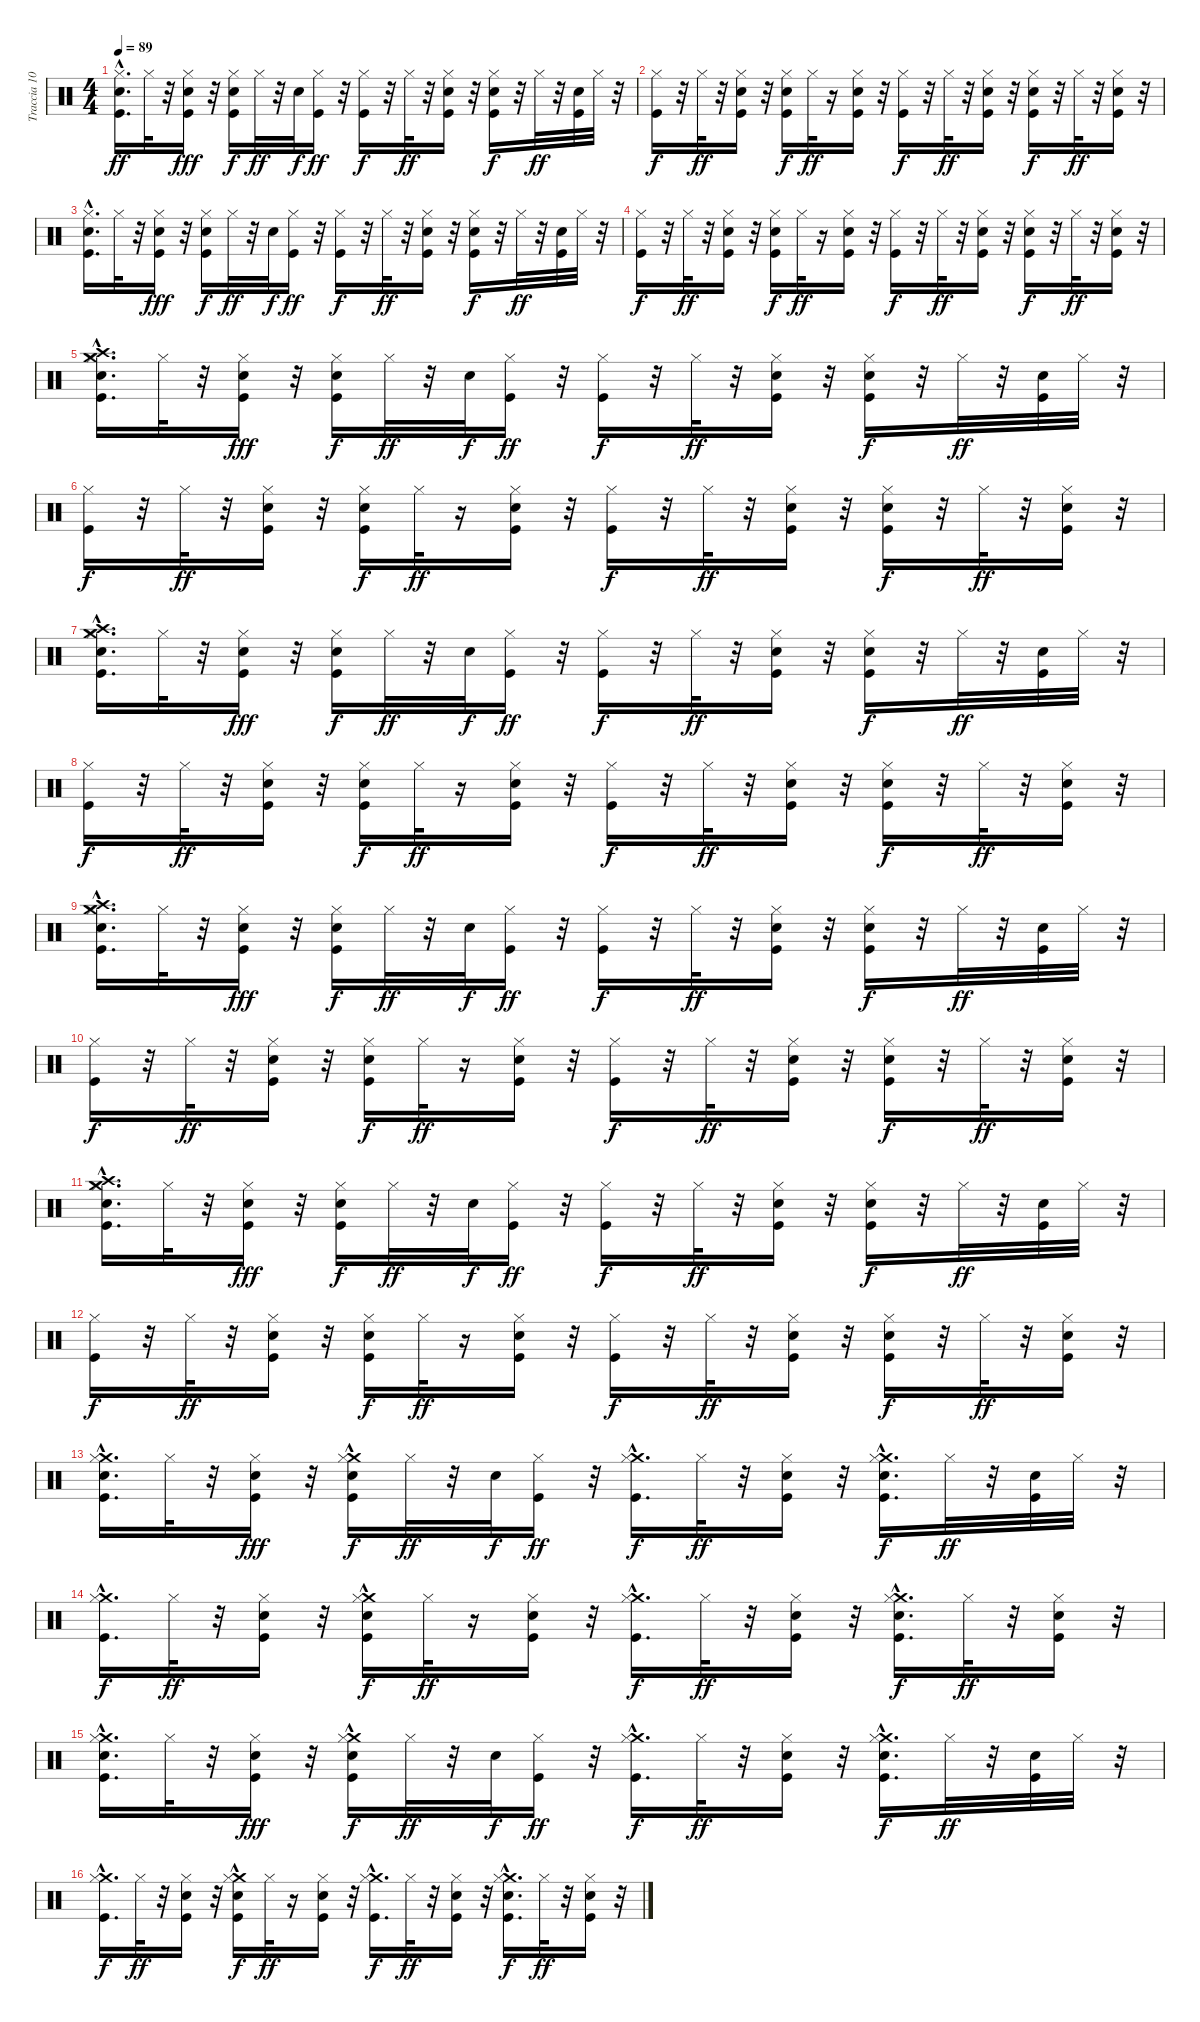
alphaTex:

\track ("Traccia 10" "Traccia 10") {instrument percussion}
\staff {score}
\articulation defaults
\ts (4 4)
\tempo 89
\clef neutral
\ks c
("Kick (hit)" "Hi-Hat (closed)" "Snare (hit)"{hac}).16{d dy ff} "Hi-Hat (closed)".32 r.32 ("Kick (hit)" "Hi-Hat (closed)" "Snare (hit)").16{dy fff} r.32 ("Kick (hit)" "Electric Snare (hit)" "Hi-Hat (closed)").16{dy f} "Hi-Hat (closed)".32{dy ff} r.32 "Snare (hit)".32{dy f} ("Kick (hit)" "Hi-Hat (closed)").16{dy ff} r.32 ("Kick (hit)" "Hi-Hat (closed)").16{dy f} r.32 "Hi-Hat (closed)".32{dy ff} r.32 ("Kick (hit)" "Snare (hit)" "Hi-Hat (closed)").16 r.32 ("Kick (hit)" "Electric Snare (hit)" "Hi-Hat (closed)").16{dy f} r.32 "Hi-Hat (closed)".32{dy ff} r.32 ("Kick (hit)" "Snare (hit)").32 "Hi-Hat (closed)".32 r.32 |
("Kick (hit)" "Hi-Hat (closed)").16{dy f} r.32 "Hi-Hat (closed)".32{dy ff} r.32 ("Kick (hit)" "Snare (hit)" "Hi-Hat (closed)").16 r.32 ("Kick (hit)" "Electric Snare (hit)" "Hi-Hat (closed)").16{dy f} "Hi-Hat (closed)".32{dy ff} r.16 ("Kick (hit)" "Hi-Hat (closed)" "Snare (hit)").16 r.32 ("Kick (hit)" "Hi-Hat (closed)").16{dy f} r.32 "Hi-Hat (closed)".32{dy ff} r.32 ("Snare (hit)" "Kick (hit)" "Hi-Hat (closed)").16 r.32 ("Kick (hit)" "Electric Snare (hit)" "Hi-Hat (closed)").16{dy f} r.32 "Hi-Hat (closed)".32{dy ff} r.32 ("Kick (hit)" "Snare (hit)" "Hi-Hat (closed)").16 r.32 |
("Kick (hit)" "Hi-Hat (closed)" "Snare (hit)"{hac}).16{d} "Hi-Hat (closed)".32 r.32 ("Kick (hit)" "Hi-Hat (closed)" "Snare (hit)").16{dy fff} r.32 ("Kick (hit)" "Electric Snare (hit)" "Hi-Hat (closed)").16{dy f} "Hi-Hat (closed)".32{dy ff} r.32 "Snare (hit)".32{dy f} ("Kick (hit)" "Hi-Hat (closed)").16{dy ff} r.32 ("Kick (hit)" "Hi-Hat (closed)").16{dy f} r.32 "Hi-Hat (closed)".32{dy ff} r.32 ("Kick (hit)" "Snare (hit)" "Hi-Hat (closed)").16 r.32 ("Kick (hit)" "Electric Snare (hit)" "Hi-Hat (closed)").16{dy f} r.32 "Hi-Hat (closed)".32{dy ff} r.32 ("Kick (hit)" "Snare (hit)").32 "Hi-Hat (closed)".32 r.32 |
("Kick (hit)" "Hi-Hat (closed)").16{dy f} r.32 "Hi-Hat (closed)".32{dy ff} r.32 ("Kick (hit)" "Snare (hit)" "Hi-Hat (closed)").16 r.32 ("Kick (hit)" "Electric Snare (hit)" "Hi-Hat (closed)").16{dy f} "Hi-Hat (closed)".32{dy ff} r.16 ("Kick (hit)" "Hi-Hat (closed)" "Snare (hit)").16 r.32 ("Kick (hit)" "Hi-Hat (closed)").16{dy f} r.32 "Hi-Hat (closed)".32{dy ff} r.32 ("Snare (hit)" "Kick (hit)" "Hi-Hat (closed)").16 r.32 ("Kick (hit)" "Electric Snare (hit)" "Hi-Hat (closed)").16{dy f} r.32 "Hi-Hat (closed)".32{dy ff} r.32 ("Kick (hit)" "Snare (hit)" "Hi-Hat (closed)").16 r.32 |
("Kick (hit)" "Crash high (hit)"{hac} "Crash medium (hit)"{hac} "Hi-Hat (closed)" "Snare (hit)"{hac}).16{d} "Hi-Hat (closed)".32 r.32 ("Kick (hit)" "Hi-Hat (closed)" "Snare (hit)").16{dy fff} r.32 ("Kick (hit)" "Electric Snare (hit)" "Hi-Hat (closed)").16{dy f} "Hi-Hat (closed)".32{dy ff} r.32 "Snare (hit)".32{dy f} ("Kick (hit)" "Hi-Hat (closed)").16{dy ff} r.32 ("Kick (hit)" "Hi-Hat (closed)").16{dy f} r.32 "Hi-Hat (closed)".32{dy ff} r.32 ("Kick (hit)" "Snare (hit)" "Hi-Hat (closed)").16 r.32 ("Kick (hit)" "Electric Snare (hit)" "Hi-Hat (closed)").16{dy f} r.32 "Hi-Hat (closed)".32{dy ff} r.32 ("Kick (hit)" "Snare (hit)").32 "Hi-Hat (closed)".32 r.32 |
("Kick (hit)" "Hi-Hat (closed)").16{dy f} r.32 "Hi-Hat (closed)".32{dy ff} r.32 ("Kick (hit)" "Snare (hit)" "Hi-Hat (closed)").16 r.32 ("Kick (hit)" "Electric Snare (hit)" "Hi-Hat (closed)").16{dy f} "Hi-Hat (closed)".32{dy ff} r.16 ("Kick (hit)" "Hi-Hat (closed)" "Snare (hit)").16 r.32 ("Kick (hit)" "Hi-Hat (closed)").16{dy f} r.32 "Hi-Hat (closed)".32{dy ff} r.32 ("Snare (hit)" "Kick (hit)" "Hi-Hat (closed)").16 r.32 ("Kick (hit)" "Electric Snare (hit)" "Hi-Hat (closed)").16{dy f} r.32 "Hi-Hat (closed)".32{dy ff} r.32 ("Kick (hit)" "Snare (hit)" "Hi-Hat (closed)").16 r.32 |
("Kick (hit)" "Crash high (hit)"{hac} "Crash medium (hit)"{hac} "Hi-Hat (closed)" "Snare (hit)"{hac}).16{d} "Hi-Hat (closed)".32 r.32 ("Kick (hit)" "Hi-Hat (closed)" "Snare (hit)").16{dy fff} r.32 ("Kick (hit)" "Electric Snare (hit)" "Hi-Hat (closed)").16{dy f} "Hi-Hat (closed)".32{dy ff} r.32 "Snare (hit)".32{dy f} ("Kick (hit)" "Hi-Hat (closed)").16{dy ff} r.32 ("Kick (hit)" "Hi-Hat (closed)").16{dy f} r.32 "Hi-Hat (closed)".32{dy ff} r.32 ("Kick (hit)" "Snare (hit)" "Hi-Hat (closed)").16 r.32 ("Kick (hit)" "Electric Snare (hit)" "Hi-Hat (closed)").16{dy f} r.32 "Hi-Hat (closed)".32{dy ff} r.32 ("Kick (hit)" "Snare (hit)").32 "Hi-Hat (closed)".32 r.32 |
("Kick (hit)" "Hi-Hat (closed)").16{dy f} r.32 "Hi-Hat (closed)".32{dy ff} r.32 ("Kick (hit)" "Snare (hit)" "Hi-Hat (closed)").16 r.32 ("Kick (hit)" "Electric Snare (hit)" "Hi-Hat (closed)").16{dy f} "Hi-Hat (closed)".32{dy ff} r.16 ("Kick (hit)" "Hi-Hat (closed)" "Snare (hit)").16 r.32 ("Kick (hit)" "Hi-Hat (closed)").16{dy f} r.32 "Hi-Hat (closed)".32{dy ff} r.32 ("Snare (hit)" "Kick (hit)" "Hi-Hat (closed)").16 r.32 ("Kick (hit)" "Electric Snare (hit)" "Hi-Hat (closed)").16{dy f} r.32 "Hi-Hat (closed)".32{dy ff} r.32 ("Kick (hit)" "Snare (hit)" "Hi-Hat (closed)").16 r.32 |
("Kick (hit)" "Crash medium (hit)"{hac} "Crash high (hit)"{hac} "Hi-Hat (closed)" "Snare (hit)"{hac}).16{d} "Hi-Hat (closed)".32 r.32 ("Kick (hit)" "Hi-Hat (closed)" "Snare (hit)").16{dy fff} r.32 ("Kick (hit)" "Electric Snare (hit)" "Hi-Hat (closed)").16{dy f} "Hi-Hat (closed)".32{dy ff} r.32 "Snare (hit)".32{dy f} ("Kick (hit)" "Hi-Hat (closed)").16{dy ff} r.32 ("Kick (hit)" "Hi-Hat (closed)").16{dy f} r.32 "Hi-Hat (closed)".32{dy ff} r.32 ("Kick (hit)" "Snare (hit)" "Hi-Hat (closed)").16 r.32 ("Kick (hit)" "Electric Snare (hit)" "Hi-Hat (closed)").16{dy f} r.32 "Hi-Hat (closed)".32{dy ff} r.32 ("Kick (hit)" "Snare (hit)").32 "Hi-Hat (closed)".32 r.32 |
("Kick (hit)" "Hi-Hat (closed)").16{dy f} r.32 "Hi-Hat (closed)".32{dy ff} r.32 ("Kick (hit)" "Snare (hit)" "Hi-Hat (closed)").16 r.32 ("Kick (hit)" "Electric Snare (hit)" "Hi-Hat (closed)").16{dy f} "Hi-Hat (closed)".32{dy ff} r.16 ("Kick (hit)" "Hi-Hat (closed)" "Snare (hit)").16 r.32 ("Kick (hit)" "Hi-Hat (closed)").16{dy f} r.32 "Hi-Hat (closed)".32{dy ff} r.32 ("Snare (hit)" "Kick (hit)" "Hi-Hat (closed)").16 r.32 ("Kick (hit)" "Electric Snare (hit)" "Hi-Hat (closed)").16{dy f} r.32 "Hi-Hat (closed)".32{dy ff} r.32 ("Kick (hit)" "Snare (hit)" "Hi-Hat (closed)").16 r.32 |
("Kick (hit)" "Crash medium (hit)"{hac} "Crash high (hit)"{hac} "Hi-Hat (closed)" "Snare (hit)"{hac}).16{d} "Hi-Hat (closed)".32 r.32 ("Kick (hit)" "Hi-Hat (closed)" "Snare (hit)").16{dy fff} r.32 ("Kick (hit)" "Electric Snare (hit)" "Hi-Hat (closed)").16{dy f} "Hi-Hat (closed)".32{dy ff} r.32 "Snare (hit)".32{dy f} ("Kick (hit)" "Hi-Hat (closed)").16{dy ff} r.32 ("Kick (hit)" "Hi-Hat (closed)").16{dy f} r.32 "Hi-Hat (closed)".32{dy ff} r.32 ("Kick (hit)" "Snare (hit)" "Hi-Hat (closed)").16 r.32 ("Kick (hit)" "Electric Snare (hit)" "Hi-Hat (closed)").16{dy f} r.32 "Hi-Hat (closed)".32{dy ff} r.32 ("Kick (hit)" "Snare (hit)").32 "Hi-Hat (closed)".32 r.32 |
("Kick (hit)" "Hi-Hat (closed)").16{dy f} r.32 "Hi-Hat (closed)".32{dy ff} r.32 ("Kick (hit)" "Snare (hit)" "Hi-Hat (closed)").16 r.32 ("Kick (hit)" "Electric Snare (hit)" "Hi-Hat (closed)").16{dy f} "Hi-Hat (closed)".32{dy ff} r.16 ("Kick (hit)" "Hi-Hat (closed)" "Snare (hit)").16 r.32 ("Kick (hit)" "Hi-Hat (closed)").16{dy f} r.32 "Hi-Hat (closed)".32{dy ff} r.32 ("Snare (hit)" "Kick (hit)" "Hi-Hat (closed)").16 r.32 ("Kick (hit)" "Electric Snare (hit)" "Hi-Hat (closed)").16{dy f} r.32 "Hi-Hat (closed)".32{dy ff} r.32 ("Kick (hit)" "Snare (hit)" "Hi-Hat (closed)").16 r.32 |
("Kick (hit)" "Crash medium (hit)"{hac} "Hi-Hat (closed)" "Snare (hit)"{hac}).16{d} "Hi-Hat (closed)".32 r.32 ("Kick (hit)" "Hi-Hat (closed)" "Snare (hit)").16{dy fff} r.32 ("Kick (hit)" "Crash medium (hit)"{hac} "Electric Snare (hit)" "Hi-Hat (closed)").16{dy f} "Hi-Hat (closed)".32{dy ff} r.32 "Snare (hit)".32{dy f} ("Kick (hit)" "Hi-Hat (closed)").16{dy ff} r.32 ("Kick (hit)" "Crash medium (hit)"{hac} "Hi-Hat (closed)").16{d dy f} "Hi-Hat (closed)".32{dy ff} r.32 ("Kick (hit)" "Snare (hit)" "Hi-Hat (closed)").16 r.32 ("Kick (hit)" "Crash medium (hit)"{hac} "Electric Snare (hit)" "Hi-Hat (closed)").16{d dy f} "Hi-Hat (closed)".32{dy ff} r.32 ("Kick (hit)" "Snare (hit)").32 "Hi-Hat (closed)".32 r.32 |
("Kick (hit)" "Crash medium (hit)"{hac} "Hi-Hat (closed)").16{d dy f} "Hi-Hat (closed)".32{dy ff} r.32 ("Kick (hit)" "Snare (hit)" "Hi-Hat (closed)").16 r.32 ("Kick (hit)" "Crash medium (hit)"{hac} "Electric Snare (hit)" "Hi-Hat (closed)").16{dy f} "Hi-Hat (closed)".32{dy ff} r.16 ("Kick (hit)" "Hi-Hat (closed)" "Snare (hit)").16 r.32 ("Kick (hit)" "Crash medium (hit)"{hac} "Hi-Hat (closed)").16{d dy f} "Hi-Hat (closed)".32{dy ff} r.32 ("Snare (hit)" "Kick (hit)" "Hi-Hat (closed)").16 r.32 ("Kick (hit)" "Crash medium (hit)"{hac} "Electric Snare (hit)" "Hi-Hat (closed)").16{d dy f} "Hi-Hat (closed)".32{dy ff} r.32 ("Kick (hit)" "Snare (hit)" "Hi-Hat (closed)").16 r.32 |
("Kick (hit)" "Crash medium (hit)"{hac} "Hi-Hat (closed)" "Snare (hit)"{hac}).16{d} "Hi-Hat (closed)".32 r.32 ("Kick (hit)" "Hi-Hat (closed)" "Snare (hit)").16{dy fff} r.32 ("Kick (hit)" "Crash medium (hit)"{hac} "Electric Snare (hit)" "Hi-Hat (closed)").16{dy f} "Hi-Hat (closed)".32{dy ff} r.32 "Snare (hit)".32{dy f} ("Kick (hit)" "Hi-Hat (closed)").16{dy ff} r.32 ("Kick (hit)" "Crash medium (hit)"{hac} "Hi-Hat (closed)").16{d dy f} "Hi-Hat (closed)".32{dy ff} r.32 ("Kick (hit)" "Snare (hit)" "Hi-Hat (closed)").16 r.32 ("Kick (hit)" "Crash medium (hit)"{hac} "Electric Snare (hit)" "Hi-Hat (closed)").16{d dy f} "Hi-Hat (closed)".32{dy ff} r.32 ("Kick (hit)" "Snare (hit)").32 "Hi-Hat (closed)".32 r.32 |
("Kick (hit)" "Crash medium (hit)"{hac} "Hi-Hat (closed)").16{d dy f} "Hi-Hat (closed)".32{dy ff} r.32 ("Kick (hit)" "Snare (hit)" "Hi-Hat (closed)").16 r.32 ("Kick (hit)" "Crash medium (hit)"{hac} "Electric Snare (hit)" "Hi-Hat (closed)").16{dy f} "Hi-Hat (closed)".32{dy ff} r.16 ("Kick (hit)" "Hi-Hat (closed)" "Snare (hit)").16 r.32 ("Kick (hit)" "Crash medium (hit)"{hac} "Hi-Hat (closed)").16{d dy f} "Hi-Hat (closed)".32{dy ff} r.32 ("Snare (hit)" "Kick (hit)" "Hi-Hat (closed)").16 r.32 ("Kick (hit)" "Crash medium (hit)"{hac} "Electric Snare (hit)" "Hi-Hat (closed)").16{d dy f} "Hi-Hat (closed)".32{dy ff} r.32 ("Kick (hit)" "Snare (hit)" "Hi-Hat (closed)").16 r.32
